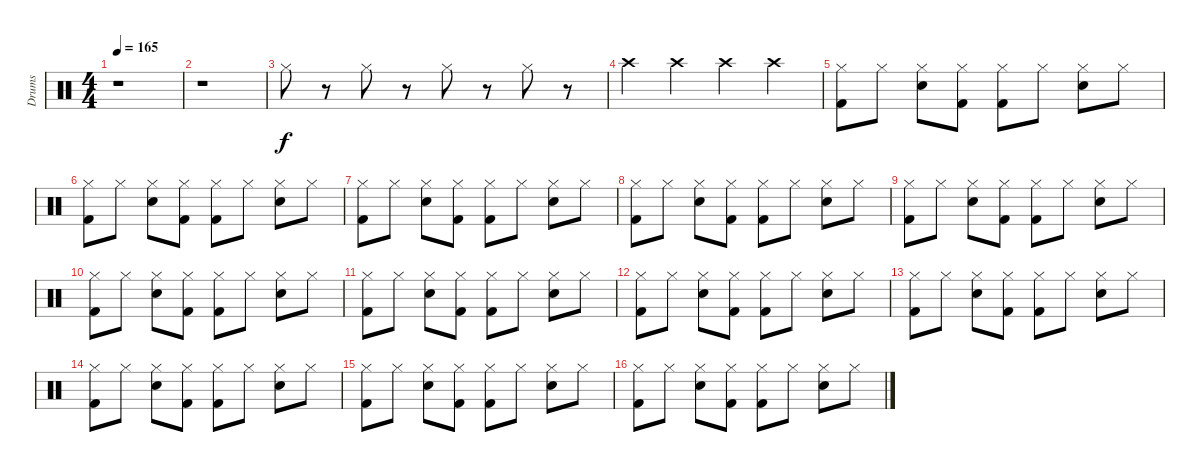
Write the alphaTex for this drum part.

\track ("Drums" "Drums") {instrument percussion}
\staff {score}
\articulation defaults
\ts (4 4)
\tempo 165
\clef neutral
\ks c
r.1{dy f} |
r.1 |
"Hi-Hat (closed)".8 r.8 "Hi-Hat (closed)".8 r.8 "Hi-Hat (closed)".8 r.8 "Hi-Hat (closed)".8 r.8 |
"Crash high (hit)".4 "Crash high (hit)".4 "Crash high (hit)".4 "Crash high (hit)".4 |
("Hi-Hat (closed)" "Kick (hit) 2").8 "Hi-Hat (closed)".8 ("Hi-Hat (closed)" "Snare (hit) 2").8 ("Hi-Hat (closed)" "Kick (hit) 2").8 ("Hi-Hat (closed)" "Kick (hit) 2").8 "Hi-Hat (closed)".8 ("Hi-Hat (closed)" "Snare (hit) 2").8 "Hi-Hat (closed)".8 |
("Hi-Hat (closed)" "Kick (hit) 2").8 "Hi-Hat (closed)".8 ("Hi-Hat (closed)" "Snare (hit) 2").8 ("Hi-Hat (closed)" "Kick (hit) 2").8 ("Hi-Hat (closed)" "Kick (hit) 2").8 "Hi-Hat (closed)".8 ("Hi-Hat (closed)" "Snare (hit) 2").8 "Hi-Hat (closed)".8 |
("Hi-Hat (closed)" "Kick (hit) 2").8 "Hi-Hat (closed)".8 ("Hi-Hat (closed)" "Snare (hit) 2").8 ("Hi-Hat (closed)" "Kick (hit) 2").8 ("Hi-Hat (closed)" "Kick (hit) 2").8 "Hi-Hat (closed)".8 ("Hi-Hat (closed)" "Snare (hit) 2").8 "Hi-Hat (closed)".8 |
("Hi-Hat (closed)" "Kick (hit) 2").8 "Hi-Hat (closed)".8 ("Hi-Hat (closed)" "Snare (hit) 2").8 ("Hi-Hat (closed)" "Kick (hit) 2").8 ("Hi-Hat (closed)" "Kick (hit) 2").8 "Hi-Hat (closed)".8 ("Hi-Hat (closed)" "Snare (hit) 2").8 "Hi-Hat (closed)".8 |
("Hi-Hat (closed)" "Kick (hit) 2").8 "Hi-Hat (closed)".8 ("Hi-Hat (closed)" "Snare (hit) 2").8 ("Hi-Hat (closed)" "Kick (hit) 2").8 ("Hi-Hat (closed)" "Kick (hit) 2").8 "Hi-Hat (closed)".8 ("Hi-Hat (closed)" "Snare (hit) 2").8 "Hi-Hat (closed)".8 |
("Hi-Hat (closed)" "Kick (hit) 2").8 "Hi-Hat (closed)".8 ("Hi-Hat (closed)" "Snare (hit) 2").8 ("Hi-Hat (closed)" "Kick (hit) 2").8 ("Hi-Hat (closed)" "Kick (hit) 2").8 "Hi-Hat (closed)".8 ("Hi-Hat (closed)" "Snare (hit) 2").8 "Hi-Hat (closed)".8 |
("Hi-Hat (closed)" "Kick (hit) 2").8 "Hi-Hat (closed)".8 ("Hi-Hat (closed)" "Snare (hit) 2").8 ("Hi-Hat (closed)" "Kick (hit) 2").8 ("Hi-Hat (closed)" "Kick (hit) 2").8 "Hi-Hat (closed)".8 ("Hi-Hat (closed)" "Snare (hit) 2").8 "Hi-Hat (closed)".8 |
("Hi-Hat (closed)" "Kick (hit) 2").8 "Hi-Hat (closed)".8 ("Hi-Hat (closed)" "Snare (hit) 2").8 ("Hi-Hat (closed)" "Kick (hit) 2").8 ("Hi-Hat (closed)" "Kick (hit) 2").8 "Hi-Hat (closed)".8 ("Hi-Hat (closed)" "Snare (hit) 2").8 "Hi-Hat (closed)".8 |
("Hi-Hat (closed)" "Kick (hit) 2").8 "Hi-Hat (closed)".8 ("Hi-Hat (closed)" "Snare (hit) 2").8 ("Hi-Hat (closed)" "Kick (hit) 2").8 ("Hi-Hat (closed)" "Kick (hit) 2").8 "Hi-Hat (closed)".8 ("Hi-Hat (closed)" "Snare (hit) 2").8 "Hi-Hat (closed)".8 |
("Hi-Hat (closed)" "Kick (hit) 2").8 "Hi-Hat (closed)".8 ("Hi-Hat (closed)" "Snare (hit) 2").8 ("Hi-Hat (closed)" "Kick (hit) 2").8 ("Hi-Hat (closed)" "Kick (hit) 2").8 "Hi-Hat (closed)".8 ("Hi-Hat (closed)" "Snare (hit) 2").8 "Hi-Hat (closed)".8 |
("Hi-Hat (closed)" "Kick (hit) 2").8 "Hi-Hat (closed)".8 ("Hi-Hat (closed)" "Snare (hit) 2").8 ("Hi-Hat (closed)" "Kick (hit) 2").8 ("Hi-Hat (closed)" "Kick (hit) 2").8 "Hi-Hat (closed)".8 ("Hi-Hat (closed)" "Snare (hit) 2").8 "Hi-Hat (closed)".8 |
("Hi-Hat (closed)" "Kick (hit) 2").8 "Hi-Hat (closed)".8 ("Hi-Hat (closed)" "Snare (hit) 2").8 ("Hi-Hat (closed)" "Kick (hit) 2").8 ("Hi-Hat (closed)" "Kick (hit) 2").8 "Hi-Hat (closed)".8 ("Hi-Hat (closed)" "Snare (hit) 2").8 "Hi-Hat (closed)".8
